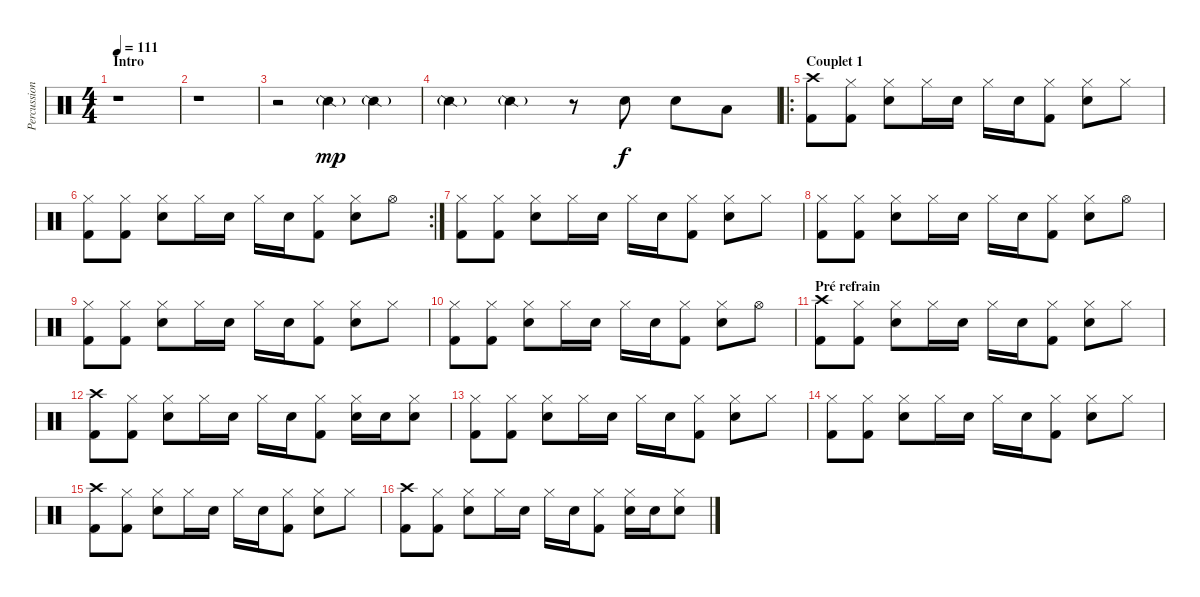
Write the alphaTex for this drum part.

\track ("Percussions" "Percussion") {instrument percussion}
\staff {score}
\articulation defaults
\ts (4 4)
\section ("" "Intro")
\tempo 111
\clef neutral
\ks c
r.1{dy mp} |
r.1 |
r.2 "Snare (side stick) 2"{g}.4 "Snare (side stick) 2"{g}.4 |
"Snare (side stick) 2"{g}.4 "Snare (side stick) 2"{g}.4 r.8 "Electric Snare (hit)".8{dy f} "Electric Snare (hit)".8 "Low Tom (hit)".8 |
\ro
\section ("" "Couplet 1")
("Crash high (hit)" "Kick (hit) 2").8 ("Hi-Hat (closed)" "Kick (hit) 2").8 ("Hi-Hat (closed)" "Electric Snare (hit)").8 "Hi-Hat (closed)".16 "Electric Snare (hit)".16 "Hi-Hat (closed)".16 "Electric Snare (hit)".16 ("Hi-Hat (closed)" "Kick (hit) 2").8 ("Hi-Hat (closed)" "Electric Snare (hit)").8 "Hi-Hat (closed)".8 |
\rc 2
("Hi-Hat (closed)" "Kick (hit) 2").8 ("Hi-Hat (closed)" "Kick (hit) 2").8 ("Hi-Hat (closed)" "Electric Snare (hit)").8 "Hi-Hat (closed)".16 "Electric Snare (hit)".16 "Hi-Hat (closed)".16 "Electric Snare (hit)".16 ("Hi-Hat (closed)" "Kick (hit) 2").8 ("Hi-Hat (closed)" "Electric Snare (hit)").8 "Hi-Hat (open)".8 |
("Hi-Hat (closed)" "Kick (hit) 2").8 ("Hi-Hat (closed)" "Kick (hit) 2").8 ("Hi-Hat (closed)" "Electric Snare (hit)").8 "Hi-Hat (closed)".16 "Electric Snare (hit)".16 "Hi-Hat (closed)".16 "Electric Snare (hit)".16 ("Hi-Hat (closed)" "Kick (hit) 2").8 ("Hi-Hat (closed)" "Electric Snare (hit)").8 "Hi-Hat (closed)".8 |
("Hi-Hat (closed)" "Kick (hit) 2").8 ("Hi-Hat (closed)" "Kick (hit) 2").8 ("Hi-Hat (closed)" "Electric Snare (hit)").8 "Hi-Hat (closed)".16 "Electric Snare (hit)".16 "Hi-Hat (closed)".16 "Electric Snare (hit)".16 ("Hi-Hat (closed)" "Kick (hit) 2").8 ("Hi-Hat (closed)" "Electric Snare (hit)").8 "Hi-Hat (open)".8 |
("Hi-Hat (closed)" "Kick (hit) 2").8 ("Hi-Hat (closed)" "Kick (hit) 2").8 ("Hi-Hat (closed)" "Electric Snare (hit)").8 "Hi-Hat (closed)".16 "Electric Snare (hit)".16 "Hi-Hat (closed)".16 "Electric Snare (hit)".16 ("Hi-Hat (closed)" "Kick (hit) 2").8 ("Hi-Hat (closed)" "Electric Snare (hit)").8 "Hi-Hat (closed)".8 |
("Hi-Hat (closed)" "Kick (hit) 2").8 ("Hi-Hat (closed)" "Kick (hit) 2").8 ("Hi-Hat (closed)" "Electric Snare (hit)").8 "Hi-Hat (closed)".16 "Electric Snare (hit)".16 "Hi-Hat (closed)".16 "Electric Snare (hit)".16 ("Hi-Hat (closed)" "Kick (hit) 2").8 ("Hi-Hat (closed)" "Electric Snare (hit)").8 "Hi-Hat (open)".8 |
\section ("" "Pré refrain")
("Crash high (hit)" "Kick (hit) 2").8 ("Hi-Hat (closed)" "Kick (hit) 2").8 ("Hi-Hat (closed)" "Electric Snare (hit)").8 "Hi-Hat (closed)".16 "Electric Snare (hit)".16 "Hi-Hat (closed)".16 "Electric Snare (hit)".16 ("Hi-Hat (closed)" "Kick (hit) 2").8 ("Hi-Hat (closed)" "Electric Snare (hit)").8 "Hi-Hat (closed)".8 |
("Crash high (hit)" "Kick (hit) 2").8 ("Hi-Hat (closed)" "Kick (hit) 2").8 ("Hi-Hat (closed)" "Electric Snare (hit)").8 "Hi-Hat (closed)".16 "Electric Snare (hit)".16 "Hi-Hat (closed)".16 "Electric Snare (hit)".16 ("Hi-Hat (closed)" "Kick (hit) 2").8 ("Hi-Hat (closed)" "Electric Snare (hit)").16 "Electric Snare (hit)".16 ("Hi-Hat (closed)" "Electric Snare (hit)").8 |
("Hi-Hat (closed)" "Kick (hit) 2").8 ("Hi-Hat (closed)" "Kick (hit) 2").8 ("Hi-Hat (closed)" "Electric Snare (hit)").8 "Hi-Hat (closed)".16 "Electric Snare (hit)".16 "Hi-Hat (closed)".16 "Electric Snare (hit)".16 ("Hi-Hat (closed)" "Kick (hit) 2").8 ("Hi-Hat (closed)" "Electric Snare (hit)").8 "Hi-Hat (closed)".8 |
("Hi-Hat (closed)" "Kick (hit) 2").8 ("Hi-Hat (closed)" "Kick (hit) 2").8 ("Hi-Hat (closed)" "Electric Snare (hit)").8 "Hi-Hat (closed)".16 "Electric Snare (hit)".16 "Hi-Hat (closed)".16 "Electric Snare (hit)".16 ("Hi-Hat (closed)" "Kick (hit) 2").8 ("Hi-Hat (closed)" "Electric Snare (hit)").8 "Hi-Hat (closed)".8 |
("Crash high (hit)" "Kick (hit) 2").8 ("Hi-Hat (closed)" "Kick (hit) 2").8 ("Hi-Hat (closed)" "Electric Snare (hit)").8 "Hi-Hat (closed)".16 "Electric Snare (hit)".16 "Hi-Hat (closed)".16 "Electric Snare (hit)".16 ("Hi-Hat (closed)" "Kick (hit) 2").8 ("Hi-Hat (closed)" "Electric Snare (hit)").8 "Hi-Hat (closed)".8 |
("Crash high (hit)" "Kick (hit) 2").8 ("Hi-Hat (closed)" "Kick (hit) 2").8 ("Hi-Hat (closed)" "Electric Snare (hit)").8 "Hi-Hat (closed)".16 "Electric Snare (hit)".16 "Hi-Hat (closed)".16 "Electric Snare (hit)".16 ("Hi-Hat (closed)" "Kick (hit) 2").8 ("Hi-Hat (closed)" "Electric Snare (hit)").16 "Electric Snare (hit)".16 ("Hi-Hat (closed)" "Electric Snare (hit)").8
